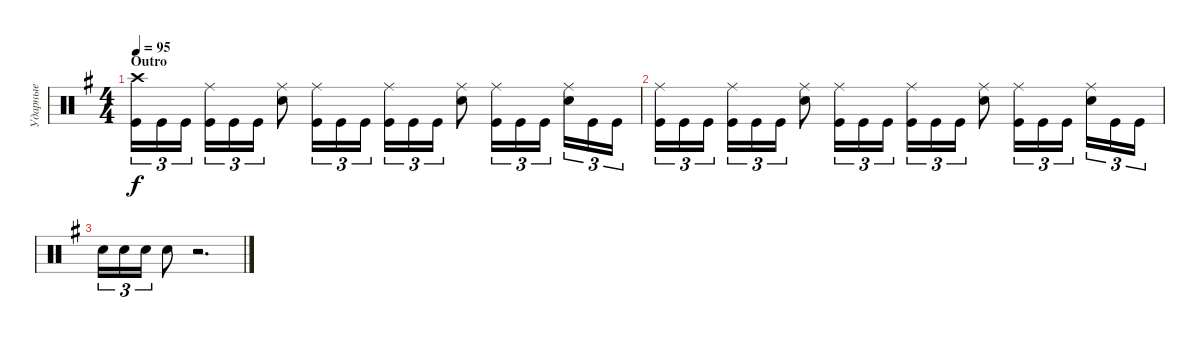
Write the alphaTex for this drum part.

\track ("Ударные" "Ударные") {instrument percussion}
\staff {score}
\articulation defaults
\ts (4 4)
\section ("" "Outro")
\tempo 95
\clef neutral
\ks eminor
("Kick (hit)" "Crash high (hit)").16{tu (3 2) dy f} "Kick (hit)".16{tu (3 2)} "Kick (hit)".16{tu (3 2) beam splitsecondary} ("Kick (hit)" "Ride (middle)").16{tu (3 2)} "Kick (hit)".16{tu (3 2)} "Kick (hit)".16{tu (3 2)} ("Snare (hit) 2" "Ride (middle)").8 ("Kick (hit)" "Ride (middle)").16{tu (3 2)} "Kick (hit)".16{tu (3 2)} "Kick (hit)".16{tu (3 2)} ("Kick (hit)" "Ride (middle)").16{tu (3 2)} "Kick (hit)".16{tu (3 2)} "Kick (hit)".16{tu (3 2)} ("Snare (hit) 2" "Ride (middle)").8 ("Kick (hit)" "Ride (middle)").16{tu (3 2)} "Kick (hit)".16{tu (3 2)} "Kick (hit)".16{tu (3 2) beam splitsecondary} ("Snare (hit) 2" "Ride (middle)").16{tu (3 2)} "Kick (hit)".16{tu (3 2)} "Kick (hit)".16{tu (3 2)} |
("Kick (hit)" "Ride (middle)").16{tu (3 2)} "Kick (hit)".16{tu (3 2)} "Kick (hit)".16{tu (3 2) beam splitsecondary} ("Kick (hit)" "Ride (middle)").16{tu (3 2)} "Kick (hit)".16{tu (3 2)} "Kick (hit)".16{tu (3 2)} ("Snare (hit) 2" "Ride (middle)").8 ("Kick (hit)" "Ride (middle)").16{tu (3 2)} "Kick (hit)".16{tu (3 2)} "Kick (hit)".16{tu (3 2)} ("Kick (hit)" "Ride (middle)").16{tu (3 2)} "Kick (hit)".16{tu (3 2)} "Kick (hit)".16{tu (3 2)} ("Snare (hit) 2" "Ride (middle)").8 ("Kick (hit)" "Ride (middle)").16{tu (3 2)} "Kick (hit)".16{tu (3 2)} "Kick (hit)".16{tu (3 2) beam splitsecondary} ("Snare (hit) 2" "Ride (middle)").16{tu (3 2)} "Kick (hit)".16{tu (3 2)} "Kick (hit)".16{tu (3 2)} |
"Snare (hit) 2".16{tu (3 2)} "Snare (hit) 2".16{tu (3 2)} "Snare (hit) 2".16{tu (3 2)} "Snare (hit) 2".8 r.2{d}
